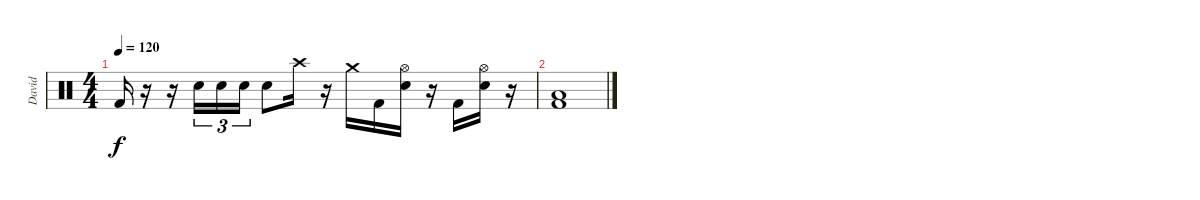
\track ("David" "David") {instrument percussion}
\staff {score}
\articulation defaults
\ts (4 4)
\tempo 120
\clef neutral
\ks c "Kick (hit) 2".16{dy f}
r.16 r.16 "Snare (hit) 2".16{tu (3 2)} "Snare (hit) 2".16{tu (3 2)} "Snare (hit) 2".16{tu (3 2)} "Snare (hit) 2".8 "Crash high (hit)".16 r.16 "Crash medium (hit)".16 "Kick (hit) 2".16 ("Hi-Hat (open)" "Snare (hit) 2").16 r.16 "Kick (hit) 2".16 ("Hi-Hat (open)" "Snare (hit) 2").16 r.16 |
("Low Floor Tom (hit)" "Kick (hit) 2").1
